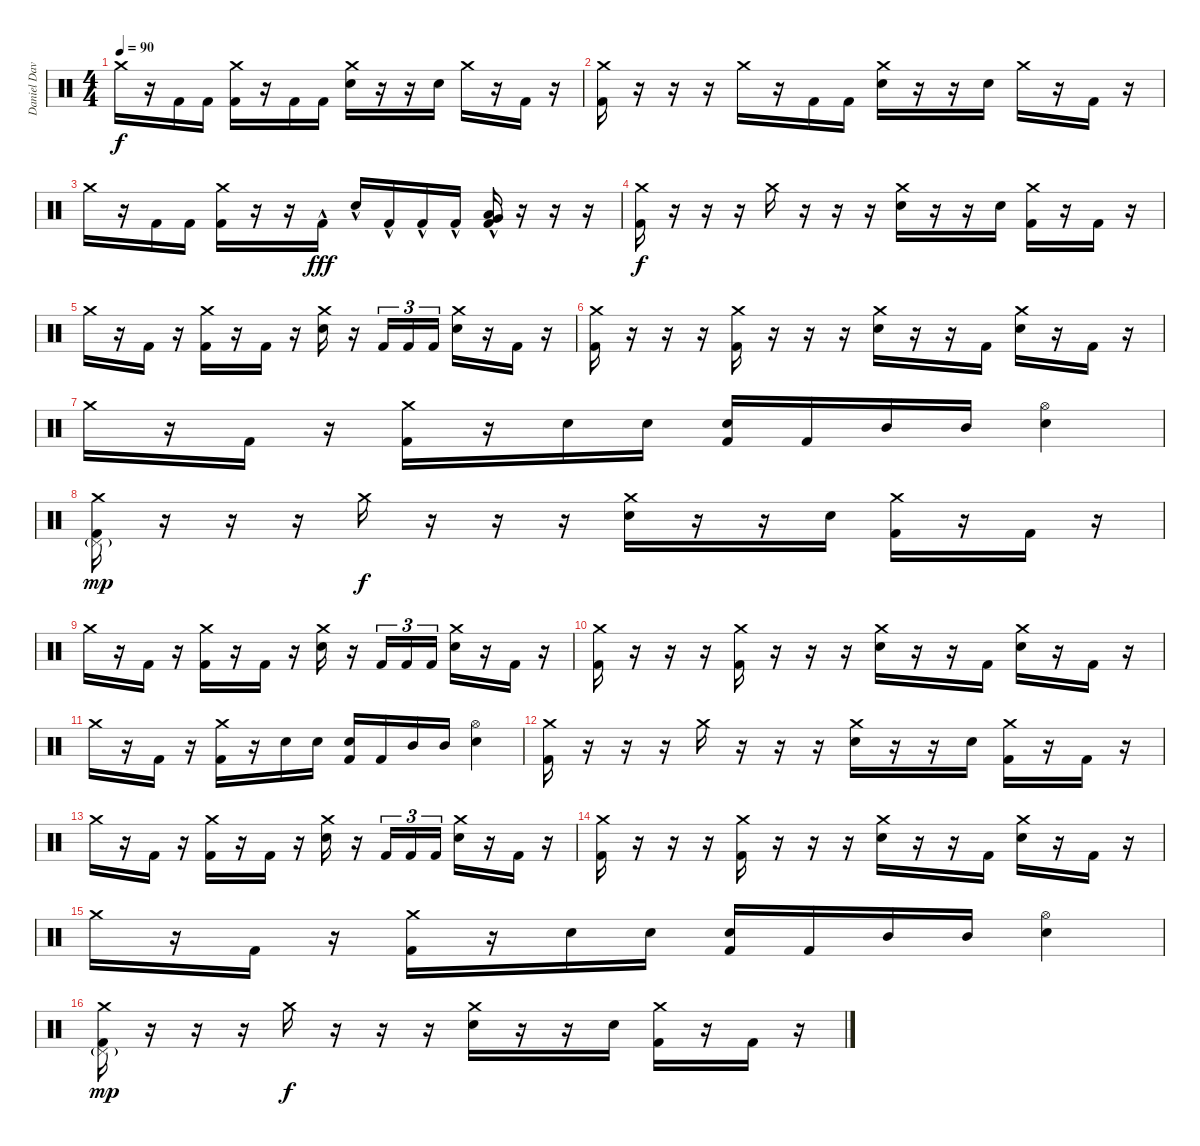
\track ("Daniel Davison" "Daniel Dav") {instrument percussion}
\staff {score}
\articulation defaults
\ts (4 4)
\tempo 90
\clef neutral
\ks c "Crash medium (hit)".16{dy f}
r.16 "Kick (hit) 2".16 "Kick (hit) 2".16 ("Crash medium (hit)" "Kick (hit) 2").16 r.16 "Kick (hit) 2".16 "Kick (hit) 2".16 ("Crash medium (hit)" "Electric Snare (hit)").16 r.16 r.16 "Electric Snare (hit)".16 "Crash medium (hit)".16 r.16 "Kick (hit) 2".16 r.16 |
("Crash medium (hit)" "Kick (hit) 2").16 r.16 r.16 r.16 "Crash medium (hit)".16 r.16 "Kick (hit) 2".16 "Kick (hit) 2".16 ("Crash medium (hit)" "Electric Snare (hit)").16 r.16 r.16 "Electric Snare (hit)".16 "Crash medium (hit)".16 r.16 "Kick (hit) 2".16 r.16 |
"Crash medium (hit)".16 r.16 "Kick (hit) 2".16 "Kick (hit) 2".16 ("Crash medium (hit)" "Kick (hit) 2").16 r.16 r.16 "Kick (hit) 2"{hac}.16{dy fff} "Electric Snare (hit)"{hac}.16 "Kick (hit) 2"{hac}.16 "Kick (hit) 2"{hac}.16 "Kick (hit) 2"{hac}.16 ("Low Tom (hit)"{hac} "Very Low Tom (hit)"{hac} "Kick (hit) 2"{hac}).16 r.16 r.16 r.16 |
("Crash medium (hit)" "Kick (hit) 2").16{dy f} r.16 r.16 r.16 "Crash medium (hit)".16 r.16 r.16 r.16 ("Crash medium (hit)" "Electric Snare (hit)").16 r.16 r.16 "Electric Snare (hit)".16 ("Crash medium (hit)" "Kick (hit) 2").16 r.16 "Kick (hit) 2".16 r.16 |
"Crash medium (hit)".16 r.16 "Kick (hit) 2".16 r.16 ("Crash medium (hit)" "Kick (hit) 2").16 r.16 "Kick (hit) 2".16 r.16 ("Crash medium (hit)" "Electric Snare (hit)").16 r.16 "Kick (hit) 2".16{tu (3 2)} "Kick (hit) 2".16{tu (3 2)} "Kick (hit) 2".16{tu (3 2)} ("Crash medium (hit)" "Electric Snare (hit)").16 r.16 "Kick (hit) 2".16 r.16 |
("Crash medium (hit)" "Kick (hit) 2").16 r.16 r.16 r.16 ("Crash medium (hit)" "Kick (hit) 2").16 r.16 r.16 r.16 ("Crash medium (hit)" "Electric Snare (hit)").16 r.16 r.16 "Kick (hit) 2".16 ("Crash medium (hit)" "Electric Snare (hit)").16 r.16 "Kick (hit) 2".16 r.16 |
"Crash medium (hit)".16 r.16 "Kick (hit) 2".16 r.16 ("Crash medium (hit)" "Kick (hit) 2").16 r.16 "Electric Snare (hit)".16 "Electric Snare (hit)".16 ("Electric Snare (hit)" "Kick (hit) 2").16 "Kick (hit) 2".16 "Mid Tom (hit)".16 "Mid Tom (hit)".16 ("Hi-Hat (open)" "Electric Snare (hit)").4 |
("Crash medium (hit)" "Pedal Hi-Hat (hit)"{g} "Kick (hit) 2").16{dy mp} r.16 r.16 r.16 "Crash medium (hit)".16{dy f} r.16 r.16 r.16 ("Crash medium (hit)" "Electric Snare (hit)").16 r.16 r.16 "Electric Snare (hit)".16 ("Crash medium (hit)" "Kick (hit) 2").16 r.16 "Kick (hit) 2".16 r.16 |
"Crash medium (hit)".16 r.16 "Kick (hit) 2".16 r.16 ("Crash medium (hit)" "Kick (hit) 2").16 r.16 "Kick (hit) 2".16 r.16 ("Crash medium (hit)" "Electric Snare (hit)").16 r.16 "Kick (hit) 2".16{tu (3 2)} "Kick (hit) 2".16{tu (3 2)} "Kick (hit) 2".16{tu (3 2)} ("Crash medium (hit)" "Electric Snare (hit)").16 r.16 "Kick (hit) 2".16 r.16 |
("Crash medium (hit)" "Kick (hit) 2").16 r.16 r.16 r.16 ("Crash medium (hit)" "Kick (hit) 2").16 r.16 r.16 r.16 ("Crash medium (hit)" "Electric Snare (hit)").16 r.16 r.16 "Kick (hit) 2".16 ("Crash medium (hit)" "Electric Snare (hit)").16 r.16 "Kick (hit) 2".16 r.16 |
"Crash medium (hit)".16 r.16 "Kick (hit) 2".16 r.16 ("Crash medium (hit)" "Kick (hit) 2").16 r.16 "Electric Snare (hit)".16 "Electric Snare (hit)".16 ("Electric Snare (hit)" "Kick (hit) 2").16 "Kick (hit) 2".16 "Mid Tom (hit)".16 "Mid Tom (hit)".16 ("Hi-Hat (open)" "Electric Snare (hit)").4 |
("Crash medium (hit)" "Kick (hit) 2").16 r.16 r.16 r.16 "Crash medium (hit)".16 r.16 r.16 r.16 ("Crash medium (hit)" "Electric Snare (hit)").16 r.16 r.16 "Electric Snare (hit)".16 ("Crash medium (hit)" "Kick (hit) 2").16 r.16 "Kick (hit) 2".16 r.16 |
"Crash medium (hit)".16 r.16 "Kick (hit) 2".16 r.16 ("Crash medium (hit)" "Kick (hit) 2").16 r.16 "Kick (hit) 2".16 r.16 ("Crash medium (hit)" "Electric Snare (hit)").16 r.16 "Kick (hit) 2".16{tu (3 2)} "Kick (hit) 2".16{tu (3 2)} "Kick (hit) 2".16{tu (3 2)} ("Crash medium (hit)" "Electric Snare (hit)").16 r.16 "Kick (hit) 2".16 r.16 |
("Crash medium (hit)" "Kick (hit) 2").16 r.16 r.16 r.16 ("Crash medium (hit)" "Kick (hit) 2").16 r.16 r.16 r.16 ("Crash medium (hit)" "Electric Snare (hit)").16 r.16 r.16 "Kick (hit) 2".16 ("Crash medium (hit)" "Electric Snare (hit)").16 r.16 "Kick (hit) 2".16 r.16 |
"Crash medium (hit)".16 r.16 "Kick (hit) 2".16 r.16 ("Crash medium (hit)" "Kick (hit) 2").16 r.16 "Electric Snare (hit)".16 "Electric Snare (hit)".16 ("Electric Snare (hit)" "Kick (hit) 2").16 "Kick (hit) 2".16 "Mid Tom (hit)".16 "Mid Tom (hit)".16 ("Hi-Hat (open)" "Electric Snare (hit)").4 |
("Crash medium (hit)" "Pedal Hi-Hat (hit)"{g} "Kick (hit) 2").16{dy mp} r.16 r.16 r.16 "Crash medium (hit)".16{dy f} r.16 r.16 r.16 ("Crash medium (hit)" "Electric Snare (hit)").16 r.16 r.16 "Electric Snare (hit)".16 ("Crash medium (hit)" "Kick (hit) 2").16 r.16 "Kick (hit) 2".16 r.16
